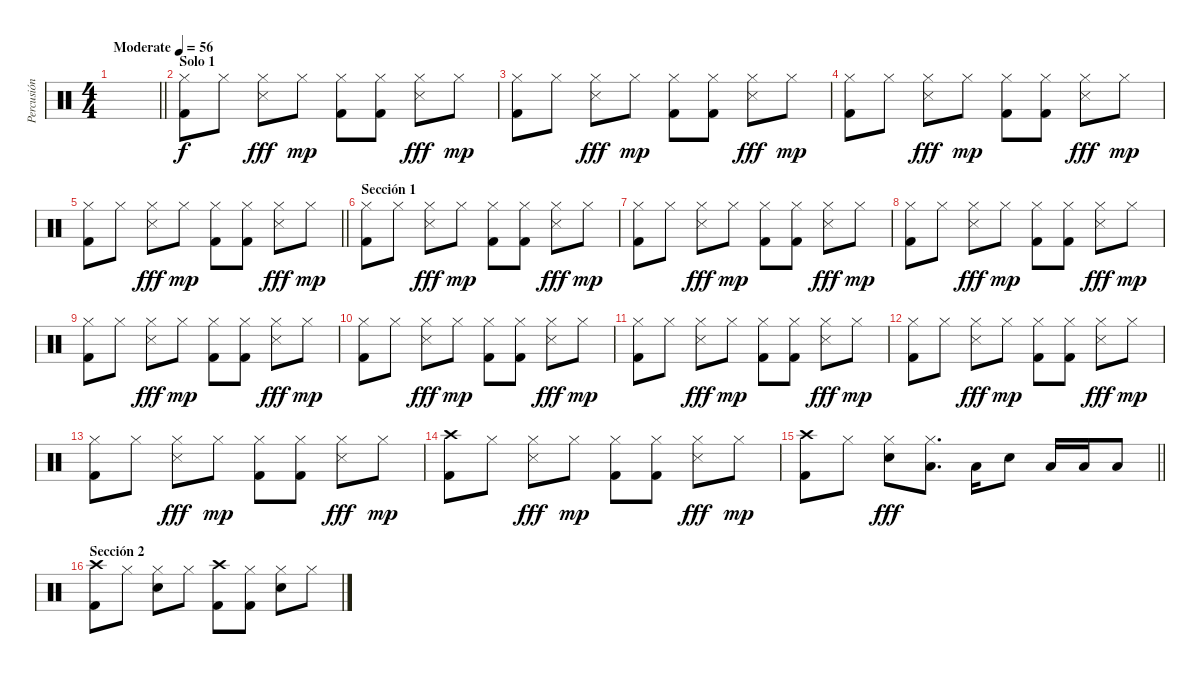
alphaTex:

\track ("Percusión" "Percusión") {instrument percussion}
\staff {score}
\articulation defaults
\ts (4 4)
\tempo (56 "Moderate")
\clef neutral
\barLineRight lightlight
\ks c
|
\section ("" "Solo 1")
("Hi-Hat (closed)" "Kick (hit) 2").8 "Hi-Hat (closed)".8 ("Hi-Hat (closed)" "Metronome (hit)").8{dy fff} "Hi-Hat (closed)".8{dy mp} ("Hi-Hat (closed)" "Kick (hit) 2").8 ("Hi-Hat (closed)" "Kick (hit) 2").8 ("Hi-Hat (closed)" "Metronome (hit)").8{dy fff} "Hi-Hat (closed)".8{dy mp} |
("Hi-Hat (closed)" "Kick (hit) 2").8 "Hi-Hat (closed)".8 ("Hi-Hat (closed)" "Metronome (hit)").8{dy fff} "Hi-Hat (closed)".8{dy mp} ("Hi-Hat (closed)" "Kick (hit) 2").8 ("Hi-Hat (closed)" "Kick (hit) 2").8 ("Hi-Hat (closed)" "Metronome (hit)").8{dy fff} "Hi-Hat (closed)".8{dy mp} |
("Hi-Hat (closed)" "Kick (hit) 2").8 "Hi-Hat (closed)".8 ("Hi-Hat (closed)" "Metronome (hit)").8{dy fff} "Hi-Hat (closed)".8{dy mp} ("Hi-Hat (closed)" "Kick (hit) 2").8 ("Hi-Hat (closed)" "Kick (hit) 2").8 ("Hi-Hat (closed)" "Metronome (hit)").8{dy fff} "Hi-Hat (closed)".8{dy mp} |
\barLineRight lightlight
("Hi-Hat (closed)" "Kick (hit) 2").8 "Hi-Hat (closed)".8 ("Hi-Hat (closed)" "Metronome (hit)").8{dy fff} "Hi-Hat (closed)".8{dy mp} ("Hi-Hat (closed)" "Kick (hit) 2").8 ("Hi-Hat (closed)" "Kick (hit) 2").8 ("Hi-Hat (closed)" "Metronome (hit)").8{dy fff} "Hi-Hat (closed)".8{dy mp} |
\section ("" "Sección 1")
("Hi-Hat (closed)" "Kick (hit) 2").8 "Hi-Hat (closed)".8 ("Hi-Hat (closed)" "Metronome (hit)").8{dy fff} "Hi-Hat (closed)".8{dy mp} ("Hi-Hat (closed)" "Kick (hit) 2").8 ("Hi-Hat (closed)" "Kick (hit) 2").8 ("Hi-Hat (closed)" "Metronome (hit)").8{dy fff} "Hi-Hat (closed)".8{dy mp} |
("Hi-Hat (closed)" "Kick (hit) 2").8 "Hi-Hat (closed)".8 ("Hi-Hat (closed)" "Metronome (hit)").8{dy fff} "Hi-Hat (closed)".8{dy mp} ("Hi-Hat (closed)" "Kick (hit) 2").8 ("Hi-Hat (closed)" "Kick (hit) 2").8 ("Hi-Hat (closed)" "Metronome (hit)").8{dy fff} "Hi-Hat (closed)".8{dy mp} |
("Hi-Hat (closed)" "Kick (hit) 2").8 "Hi-Hat (closed)".8 ("Hi-Hat (closed)" "Metronome (hit)").8{dy fff} "Hi-Hat (closed)".8{dy mp} ("Hi-Hat (closed)" "Kick (hit) 2").8 ("Hi-Hat (closed)" "Kick (hit) 2").8 ("Hi-Hat (closed)" "Metronome (hit)").8{dy fff} "Hi-Hat (closed)".8{dy mp} |
("Hi-Hat (closed)" "Kick (hit) 2").8 "Hi-Hat (closed)".8 ("Hi-Hat (closed)" "Metronome (hit)").8{dy fff} "Hi-Hat (closed)".8{dy mp} ("Hi-Hat (closed)" "Kick (hit) 2").8 ("Hi-Hat (closed)" "Kick (hit) 2").8 ("Hi-Hat (closed)" "Metronome (hit)").8{dy fff} "Hi-Hat (closed)".8{dy mp} |
("Hi-Hat (closed)" "Kick (hit) 2").8 "Hi-Hat (closed)".8 ("Hi-Hat (closed)" "Metronome (hit)").8{dy fff} "Hi-Hat (closed)".8{dy mp} ("Hi-Hat (closed)" "Kick (hit) 2").8 ("Hi-Hat (closed)" "Kick (hit) 2").8 ("Hi-Hat (closed)" "Metronome (hit)").8{dy fff} "Hi-Hat (closed)".8{dy mp} |
("Hi-Hat (closed)" "Kick (hit) 2").8 "Hi-Hat (closed)".8 ("Hi-Hat (closed)" "Metronome (hit)").8{dy fff} "Hi-Hat (closed)".8{dy mp} ("Hi-Hat (closed)" "Kick (hit) 2").8 ("Hi-Hat (closed)" "Kick (hit) 2").8 ("Hi-Hat (closed)" "Metronome (hit)").8{dy fff} "Hi-Hat (closed)".8{dy mp} |
("Hi-Hat (closed)" "Kick (hit) 2").8 "Hi-Hat (closed)".8 ("Hi-Hat (closed)" "Metronome (hit)").8{dy fff} "Hi-Hat (closed)".8{dy mp} ("Hi-Hat (closed)" "Kick (hit) 2").8 ("Hi-Hat (closed)" "Kick (hit) 2").8 ("Hi-Hat (closed)" "Metronome (hit)").8{dy fff} "Hi-Hat (closed)".8{dy mp} |
("Hi-Hat (closed)" "Kick (hit) 2").8 "Hi-Hat (closed)".8 ("Hi-Hat (closed)" "Metronome (hit)").8{dy fff} "Hi-Hat (closed)".8{dy mp} ("Hi-Hat (closed)" "Kick (hit) 2").8 ("Hi-Hat (closed)" "Kick (hit) 2").8 ("Hi-Hat (closed)" "Metronome (hit)").8{dy fff} "Hi-Hat (closed)".8{dy mp} |
("Crash high (hit)" "Kick (hit) 2").8 "Hi-Hat (closed)".8 ("Hi-Hat (closed)" "Metronome (hit)").8{dy fff} "Hi-Hat (closed)".8{dy mp} ("Hi-Hat (closed)" "Kick (hit) 2").8 ("Hi-Hat (closed)" "Kick (hit) 2").8 ("Hi-Hat (closed)" "Metronome (hit)").8{dy fff} "Hi-Hat (closed)".8{dy mp} |
\barLineRight lightlight
("Crash high (hit)" "Kick (hit) 2").8 "Hi-Hat (closed)".8 ("Hi-Hat (closed)" "Snare (hit) 2").8{dy fff} ("Hi-Hat (closed)" "Low Tom (hit)").8{d} "Low Tom (hit)".16 "Snare (hit) 2".8 "Low Tom (hit)".16 "Low Tom (hit)".16 "Low Tom (hit)".8 |
\section ("" "Sección 2")
("Crash high (hit)" "Kick (hit) 2").8 "Hi-Hat (closed)".8 ("Hi-Hat (closed)" "Snare (hit) 2").8 "Hi-Hat (closed)".8 ("Crash high (hit)" "Kick (hit) 2").8 ("Hi-Hat (closed)" "Kick (hit) 2").8 ("Hi-Hat (closed)" "Snare (hit) 2").8 "Hi-Hat (closed)".8
